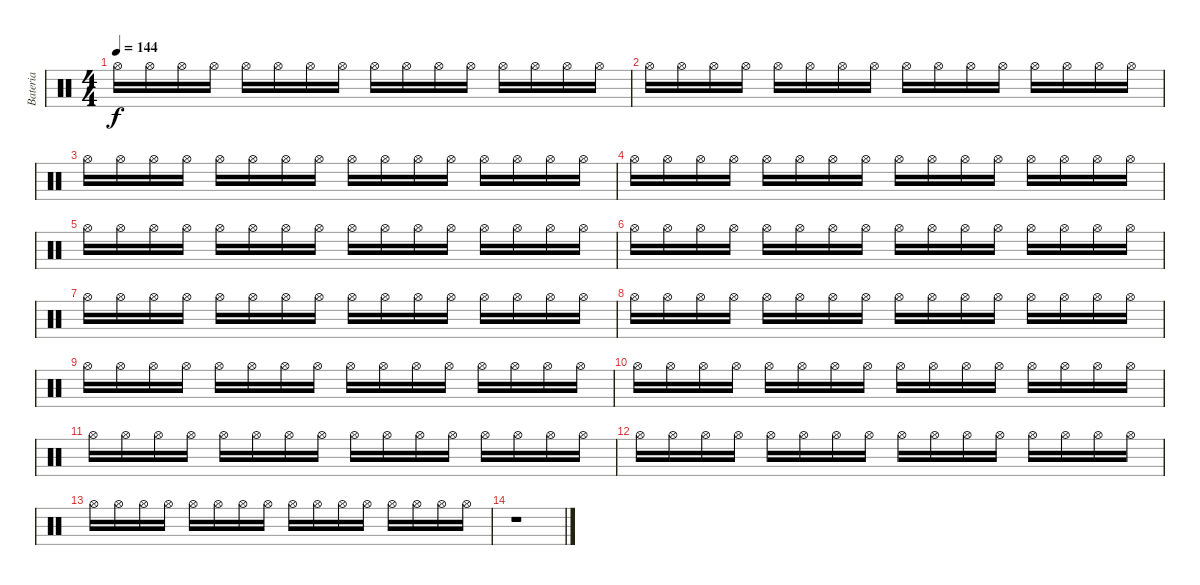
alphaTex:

\track ("Bateria" "Bateria") {instrument percussion}
\staff {score}
\articulation defaults
\ts (4 4)
\tempo 144
\clef neutral
\ks c "Hi-Hat (open)".16{dy f} "Hi-Hat (open)".16 "Hi-Hat (open)".16 "Hi-Hat (open)".16 "Hi-Hat (open)".16 "Hi-Hat (open)".16 "Hi-Hat (open)".16 "Hi-Hat (open)".16 "Hi-Hat (open)".16 "Hi-Hat (open)".16 "Hi-Hat (open)".16 "Hi-Hat (open)".16 "Hi-Hat (open)".16 "Hi-Hat (open)".16 "Hi-Hat (open)".16 "Hi-Hat (open)".16
|
"Hi-Hat (open)".16 "Hi-Hat (open)".16 "Hi-Hat (open)".16 "Hi-Hat (open)".16 "Hi-Hat (open)".16 "Hi-Hat (open)".16 "Hi-Hat (open)".16 "Hi-Hat (open)".16 "Hi-Hat (open)".16 "Hi-Hat (open)".16 "Hi-Hat (open)".16 "Hi-Hat (open)".16 "Hi-Hat (open)".16 "Hi-Hat (open)".16 "Hi-Hat (open)".16 "Hi-Hat (open)".16 |
"Hi-Hat (open)".16 "Hi-Hat (open)".16 "Hi-Hat (open)".16 "Hi-Hat (open)".16 "Hi-Hat (open)".16 "Hi-Hat (open)".16 "Hi-Hat (open)".16 "Hi-Hat (open)".16 "Hi-Hat (open)".16 "Hi-Hat (open)".16 "Hi-Hat (open)".16 "Hi-Hat (open)".16 "Hi-Hat (open)".16 "Hi-Hat (open)".16 "Hi-Hat (open)".16 "Hi-Hat (open)".16 |
"Hi-Hat (open)".16 "Hi-Hat (open)".16 "Hi-Hat (open)".16 "Hi-Hat (open)".16 "Hi-Hat (open)".16 "Hi-Hat (open)".16 "Hi-Hat (open)".16 "Hi-Hat (open)".16 "Hi-Hat (open)".16 "Hi-Hat (open)".16 "Hi-Hat (open)".16 "Hi-Hat (open)".16 "Hi-Hat (open)".16 "Hi-Hat (open)".16 "Hi-Hat (open)".16 "Hi-Hat (open)".16 |
"Hi-Hat (open)".16 "Hi-Hat (open)".16 "Hi-Hat (open)".16 "Hi-Hat (open)".16 "Hi-Hat (open)".16 "Hi-Hat (open)".16 "Hi-Hat (open)".16 "Hi-Hat (open)".16 "Hi-Hat (open)".16 "Hi-Hat (open)".16 "Hi-Hat (open)".16 "Hi-Hat (open)".16 "Hi-Hat (open)".16 "Hi-Hat (open)".16 "Hi-Hat (open)".16 "Hi-Hat (open)".16 |
"Hi-Hat (open)".16 "Hi-Hat (open)".16 "Hi-Hat (open)".16 "Hi-Hat (open)".16 "Hi-Hat (open)".16 "Hi-Hat (open)".16 "Hi-Hat (open)".16 "Hi-Hat (open)".16 "Hi-Hat (open)".16 "Hi-Hat (open)".16 "Hi-Hat (open)".16 "Hi-Hat (open)".16 "Hi-Hat (open)".16 "Hi-Hat (open)".16 "Hi-Hat (open)".16 "Hi-Hat (open)".16 |
"Hi-Hat (open)".16 "Hi-Hat (open)".16 "Hi-Hat (open)".16 "Hi-Hat (open)".16 "Hi-Hat (open)".16 "Hi-Hat (open)".16 "Hi-Hat (open)".16 "Hi-Hat (open)".16 "Hi-Hat (open)".16 "Hi-Hat (open)".16 "Hi-Hat (open)".16 "Hi-Hat (open)".16 "Hi-Hat (open)".16 "Hi-Hat (open)".16 "Hi-Hat (open)".16 "Hi-Hat (open)".16 |
"Hi-Hat (open)".16 "Hi-Hat (open)".16 "Hi-Hat (open)".16 "Hi-Hat (open)".16 "Hi-Hat (open)".16 "Hi-Hat (open)".16 "Hi-Hat (open)".16 "Hi-Hat (open)".16 "Hi-Hat (open)".16 "Hi-Hat (open)".16 "Hi-Hat (open)".16 "Hi-Hat (open)".16 "Hi-Hat (open)".16 "Hi-Hat (open)".16 "Hi-Hat (open)".16 "Hi-Hat (open)".16 |
"Hi-Hat (open)".16 "Hi-Hat (open)".16 "Hi-Hat (open)".16 "Hi-Hat (open)".16 "Hi-Hat (open)".16 "Hi-Hat (open)".16 "Hi-Hat (open)".16 "Hi-Hat (open)".16 "Hi-Hat (open)".16 "Hi-Hat (open)".16 "Hi-Hat (open)".16 "Hi-Hat (open)".16 "Hi-Hat (open)".16 "Hi-Hat (open)".16 "Hi-Hat (open)".16 "Hi-Hat (open)".16 |
"Hi-Hat (open)".16 "Hi-Hat (open)".16 "Hi-Hat (open)".16 "Hi-Hat (open)".16 "Hi-Hat (open)".16 "Hi-Hat (open)".16 "Hi-Hat (open)".16 "Hi-Hat (open)".16 "Hi-Hat (open)".16 "Hi-Hat (open)".16 "Hi-Hat (open)".16 "Hi-Hat (open)".16 "Hi-Hat (open)".16 "Hi-Hat (open)".16 "Hi-Hat (open)".16 "Hi-Hat (open)".16 |
"Hi-Hat (open)".16 "Hi-Hat (open)".16 "Hi-Hat (open)".16 "Hi-Hat (open)".16 "Hi-Hat (open)".16 "Hi-Hat (open)".16 "Hi-Hat (open)".16 "Hi-Hat (open)".16 "Hi-Hat (open)".16 "Hi-Hat (open)".16 "Hi-Hat (open)".16 "Hi-Hat (open)".16 "Hi-Hat (open)".16 "Hi-Hat (open)".16 "Hi-Hat (open)".16 "Hi-Hat (open)".16 |
"Hi-Hat (open)".16 "Hi-Hat (open)".16 "Hi-Hat (open)".16 "Hi-Hat (open)".16 "Hi-Hat (open)".16 "Hi-Hat (open)".16 "Hi-Hat (open)".16 "Hi-Hat (open)".16 "Hi-Hat (open)".16 "Hi-Hat (open)".16 "Hi-Hat (open)".16 "Hi-Hat (open)".16 "Hi-Hat (open)".16 "Hi-Hat (open)".16 "Hi-Hat (open)".16 "Hi-Hat (open)".16 |
"Hi-Hat (open)".16 "Hi-Hat (open)".16 "Hi-Hat (open)".16 "Hi-Hat (open)".16 "Hi-Hat (open)".16 "Hi-Hat (open)".16 "Hi-Hat (open)".16 "Hi-Hat (open)".16 "Hi-Hat (open)".16 "Hi-Hat (open)".16 "Hi-Hat (open)".16 "Hi-Hat (open)".16 "Hi-Hat (open)".16 "Hi-Hat (open)".16 "Hi-Hat (open)".16 "Hi-Hat (open)".16 |
r.1
